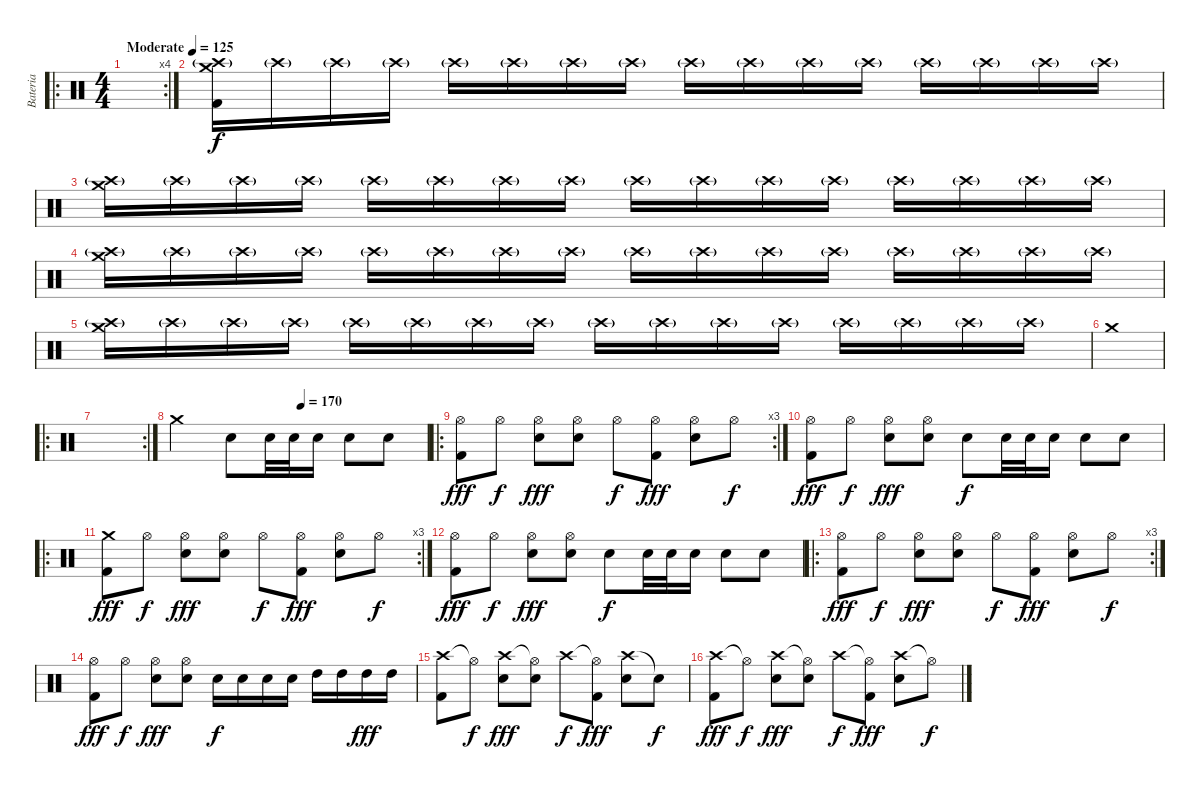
\track ("Bateria" "Bateria") {instrument percussion bank 1}
\staff {score}
\articulation defaults
\ro
\rc 4
\ts (4 4)
\tempo (125 "Moderate")
\clef neutral
\ks c
|
("Crash high (hit)"{g} "Crash medium (hit)" "Kick (hit) 2").16 "Crash high (hit)"{g}.16 "Crash high (hit)"{g}.16 "Crash high (hit)"{g}.16 "Crash high (hit)"{g}.16 "Crash high (hit)"{g}.16 "Crash high (hit)"{g}.16 "Crash high (hit)"{g}.16 "Crash high (hit)"{g}.16 "Crash high (hit)"{g}.16 "Crash high (hit)"{g}.16 "Crash high (hit)"{g}.16 "Crash high (hit)"{g}.16 "Crash high (hit)"{g}.16 "Crash high (hit)"{g}.16 "Crash high (hit)"{g}.16 |
("Crash high (hit)"{g} "Crash medium (hit)").16 "Crash high (hit)"{g}.16 "Crash high (hit)"{g}.16 "Crash high (hit)"{g}.16 "Crash high (hit)"{g}.16 "Crash high (hit)"{g}.16 "Crash high (hit)"{g}.16 "Crash high (hit)"{g}.16 "Crash high (hit)"{g}.16 "Crash high (hit)"{g}.16 "Crash high (hit)"{g}.16 "Crash high (hit)"{g}.16 "Crash high (hit)"{g}.16 "Crash high (hit)"{g}.16 "Crash high (hit)"{g}.16 "Crash high (hit)"{g}.16 |
("Crash high (hit)"{g} "Crash medium (hit)").16 "Crash high (hit)"{g}.16 "Crash high (hit)"{g}.16 "Crash high (hit)"{g}.16 "Crash high (hit)"{g}.16 "Crash high (hit)"{g}.16 "Crash high (hit)"{g}.16 "Crash high (hit)"{g}.16 "Crash high (hit)"{g}.16 "Crash high (hit)"{g}.16 "Crash high (hit)"{g}.16 "Crash high (hit)"{g}.16 "Crash high (hit)"{g}.16 "Crash high (hit)"{g}.16 "Crash high (hit)"{g}.16 "Crash high (hit)"{g}.16 |
("Crash high (hit)"{g} "Crash medium (hit)").16 "Crash high (hit)"{g}.16 "Crash high (hit)"{g}.16 "Crash high (hit)"{g}.16 "Crash high (hit)"{g}.16 "Crash high (hit)"{g}.16 "Crash high (hit)"{g}.16 "Crash high (hit)"{g}.16 "Crash high (hit)"{g}.16 "Crash high (hit)"{g}.16 "Crash high (hit)"{g}.16 "Crash high (hit)"{g}.16 "Crash high (hit)"{g}.16 "Crash high (hit)"{g}.16 "Crash high (hit)"{g}.16 "Crash high (hit)"{g}.16 |
"Crash medium (hit)".1{dy f} |
\ro
\rc 2
|
\tempo (170 0.5)
"Crash medium (hit)".2 "Electric Snare (hit)".8 "Electric Snare (hit)".32 "Electric Snare (hit)".32 "Electric Snare (hit)".16 "Electric Snare (hit)".8 "Electric Snare (hit)".8 |
\ro
\rc 3
("Hi-Hat (open)" "Kick (hit) 2").8{dy fff} "Hi-Hat (open)".8{dy f} ("Hi-Hat (open)" "Electric Snare (hit)").8{dy fff} ("Hi-Hat (open)" "Electric Snare (hit)").8 "Hi-Hat (open)".8{dy f} ("Hi-Hat (open)" "Kick (hit) 2").8{dy fff} ("Hi-Hat (open)" "Electric Snare (hit)").8 "Hi-Hat (open)".8{dy f} |
("Hi-Hat (open)" "Kick (hit) 2").8{dy fff} "Hi-Hat (open)".8{dy f} ("Hi-Hat (open)" "Electric Snare (hit)").8{dy fff} ("Hi-Hat (open)" "Electric Snare (hit)").8 "Electric Snare (hit)".8{dy f} "Electric Snare (hit)".32 "Electric Snare (hit)".32 "Electric Snare (hit)".16 "Electric Snare (hit)".8 "Electric Snare (hit)".8 |
\ro
\rc 3
("Crash medium (hit)" "Kick (hit) 2").8{dy fff} "Hi-Hat (open)".8{dy f} ("Hi-Hat (open)" "Electric Snare (hit)").8{dy fff} ("Hi-Hat (open)" "Electric Snare (hit)").8 "Hi-Hat (open)".8{dy f} ("Hi-Hat (open)" "Kick (hit) 2").8{dy fff} ("Hi-Hat (open)" "Electric Snare (hit)").8 "Hi-Hat (open)".8{dy f} |
("Hi-Hat (open)" "Kick (hit) 2").8{dy fff} "Hi-Hat (open)".8{dy f} ("Hi-Hat (open)" "Electric Snare (hit)").8{dy fff} ("Hi-Hat (open)" "Electric Snare (hit)").8 "Electric Snare (hit)".8{dy f} "Electric Snare (hit)".32 "Electric Snare (hit)".32 "Electric Snare (hit)".16 "Electric Snare (hit)".8 "Electric Snare (hit)".8 |
\ro
\rc 3
("Hi-Hat (open)" "Kick (hit) 2").8{dy fff} "Hi-Hat (open)".8{dy f} ("Hi-Hat (open)" "Electric Snare (hit)").8{dy fff} ("Hi-Hat (open)" "Electric Snare (hit)").8 "Hi-Hat (open)".8{dy f} ("Hi-Hat (open)" "Kick (hit) 2").8{dy fff} ("Hi-Hat (open)" "Electric Snare (hit)").8 "Hi-Hat (open)".8{dy f} |
("Hi-Hat (open)" "Kick (hit) 2").8{dy fff} "Hi-Hat (open)".8{dy f} ("Hi-Hat (open)" "Electric Snare (hit)").8{dy fff} ("Hi-Hat (open)" "Electric Snare (hit)").8 "Electric Snare (hit)".16{dy f} "Electric Snare (hit)".16 "Electric Snare (hit)".16 "Electric Snare (hit)".16 "High Tom (hit)".16 "High Tom (hit)".16 "High Tom (hit)".16{dy fff} "High Tom (hit)".16 |
("Crash high (hit)" "Kick (hit) 2").8 "Hi-Hat (open)"{t}.8{dy f} ("Crash high (hit)" "Electric Snare (hit)").8{dy fff} ("Hi-Hat (open)"{t} "Electric Snare (hit)").8 "Crash high (hit)".8{dy f} ("Hi-Hat (open)"{t} "Kick (hit) 2").8{dy fff} ("Crash high (hit)" "Electric Snare (hit)").8 "Snare (hit)"{t}.8{dy f} |
("Crash high (hit)" "Kick (hit) 2").8{dy fff} "Hi-Hat (open)"{t}.8{dy f} ("Crash high (hit)" "Electric Snare (hit)").8{dy fff} ("Hi-Hat (open)"{t} "Electric Snare (hit)").8 "Crash high (hit)".8{dy f} ("Hi-Hat (open)"{t} "Kick (hit) 2").8{dy fff} ("Crash high (hit)" "Electric Snare (hit)").8 "Hi-Hat (open)"{t}.8{dy f}
